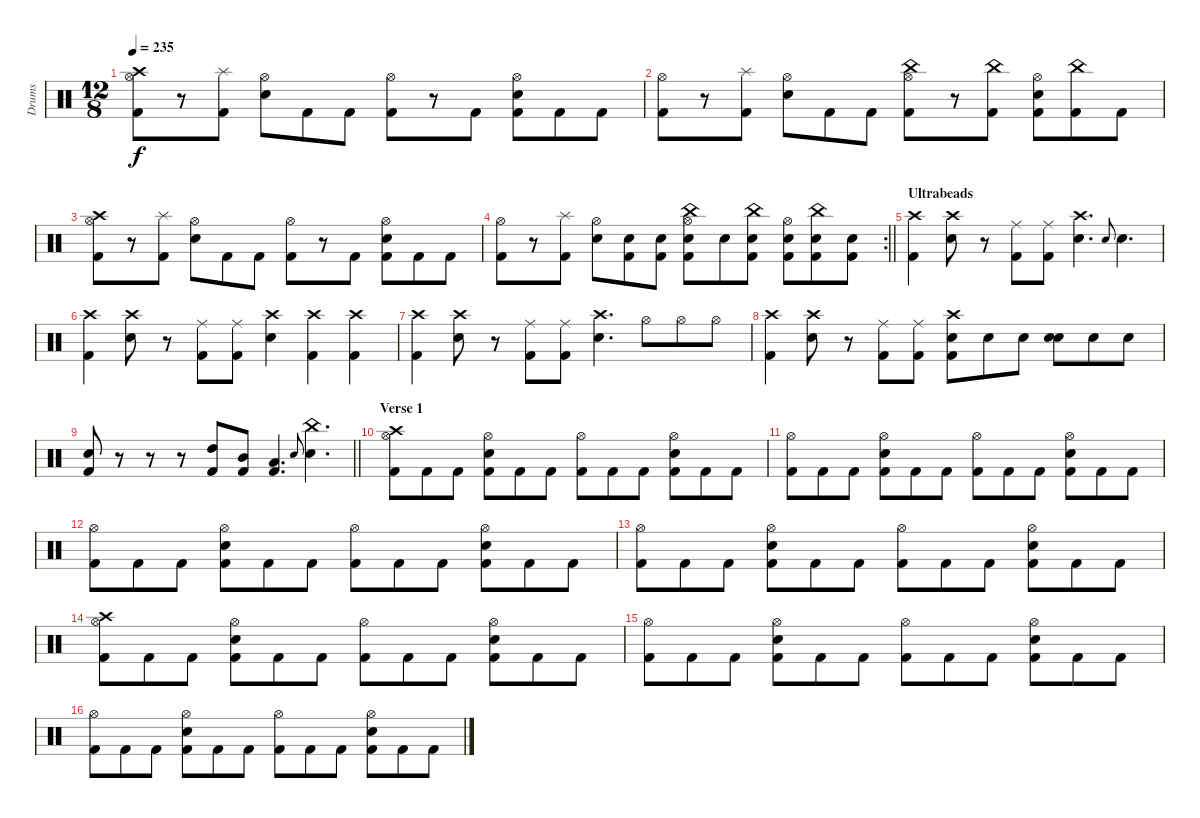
\track ("Drums" "Drums") {instrument percussion}
\staff {score}
\articulation defaults
\ts (12 8)
\tempo 235
\clef neutral
\ks c
("Crash high (hit)" "Hi-Hat (open)" "Kick (hit) 2").8{dy f} r.8 ("Splash (hit)" "Kick (hit) 2").8 ("Hi-Hat (open)" "Snare (hit) 2").8 "Kick (hit) 2".8 "Kick (hit) 2".8 ("Hi-Hat (open)" "Kick (hit) 2").8 r.8 "Kick (hit) 2".8 ("Hi-Hat (open)" "Snare (hit) 2" "Kick (hit) 2").8 "Kick (hit) 2".8 "Kick (hit) 2".8 |
("Hi-Hat (open)" "Kick (hit) 2").8 r.8 ("Splash (hit)" "Kick (hit) 2").8 ("Hi-Hat (open)" "Snare (hit) 2").8 "Kick (hit) 2".8 "Kick (hit) 2".8 ("China (hit)" "Hi-Hat (open)" "Kick (hit) 2").8 r.8 ("China (hit)" "Kick (hit) 2").8 ("Hi-Hat (open)" "Snare (hit) 2" "Kick (hit) 2").8 ("China (hit)" "Kick (hit) 2").8 "Kick (hit) 2".8 |
("Crash high (hit)" "Hi-Hat (open)" "Kick (hit) 2").8 r.8 ("Splash (hit)" "Kick (hit) 2").8 ("Hi-Hat (open)" "Snare (hit) 2").8 "Kick (hit) 2".8 "Kick (hit) 2".8 ("Hi-Hat (open)" "Kick (hit) 2").8 r.8 "Kick (hit) 2".8 ("Hi-Hat (open)" "Snare (hit) 2" "Kick (hit) 2").8 "Kick (hit) 2".8 "Kick (hit) 2".8 |
\rc 2
\barLineRight lightlight
("Hi-Hat (open)" "Kick (hit) 2").8 r.8 ("Splash (hit)" "Kick (hit) 2").8 ("Hi-Hat (open)" "Snare (hit) 2").8 ("Snare (hit) 2" "Kick (hit) 2").8 ("Snare (hit) 2" "Kick (hit) 2").8 ("China (hit)" "Hi-Hat (open)" "Snare (hit) 2" "Kick (hit) 2").8 "Snare (hit) 2".8 ("China (hit)" "Snare (hit) 2" "Kick (hit) 2").8 ("Hi-Hat (open)" "Snare (hit) 2" "Kick (hit) 2").8 ("China (hit)" "Snare (hit) 2" "Kick (hit) 2").8 ("Snare (hit) 2" "Kick (hit) 2").8 |
\section ("" "Ultrabeads")
("Crash high (hit)" "Kick (hit) 2").4 ("Crash high (hit)" "Snare (hit) 2").8 r.8 ("Ride (middle)" "Kick (hit) 2").8 ("Ride (middle)" "Kick (hit) 2").8 ("Crash high (hit)" "Snare (hit) 2").4{d} "Snare (hit) 2".8{gr onbeat} "Snare (hit) 2".4{d} |
("Crash high (hit)" "Kick (hit) 2").4 ("Crash high (hit)" "Snare (hit) 2").8 r.8 ("Ride (middle)" "Kick (hit) 2").8 ("Ride (middle)" "Kick (hit) 2").8 ("Crash high (hit)" "Snare (hit) 2").4 ("Crash high (hit)" "Kick (hit) 2").4 ("Crash high (hit)" "Kick (hit) 2").4 |
("Crash high (hit)" "Kick (hit) 2").4 ("Crash high (hit)" "Snare (hit) 2").8 r.8 ("Ride (middle)" "Kick (hit) 2").8 ("Ride (middle)" "Kick (hit) 2").8 ("Crash high (hit)" "Snare (hit) 2").4{d} "Hi-Hat (open)".8 "Hi-Hat (open)".8 "Hi-Hat (open)".8 |
("Crash high (hit)" "Kick (hit) 2").4 ("Crash high (hit)" "Snare (hit) 2").8 r.8 ("Ride (middle)" "Kick (hit) 2").8 ("Ride (middle)" "Kick (hit) 2").8 ("Crash high (hit)" "Snare (hit) 2" "Kick (hit) 2").8 "Snare (hit) 2".8 "Snare (hit) 2".8 ("Snare (hit) 2" "Snare (hit) 2").8 "Snare (hit) 2".8 "Snare (hit) 2".8 |
\barLineRight lightlight
("Snare (hit) 2" "Kick (hit) 2").8 r.8 r.8 r.8 ("High Tom (hit)" "Kick (hit) 2").8 ("Mid Tom (hit)" "Kick (hit) 2").8 ("Low Tom (hit)" "Kick (hit) 2").4{d} "Snare (hit) 2".8{gr onbeat} ("China (hit)" "Snare (hit) 2").4{d} |
\section ("" "Verse 1")
("Crash high (hit)" "Hi-Hat (open)" "Kick (hit) 2").8 "Kick (hit) 2".8 "Kick (hit) 2".8 ("Hi-Hat (open)" "Snare (hit) 2" "Kick (hit) 2").8 "Kick (hit) 2".8 "Kick (hit) 2".8 ("Hi-Hat (open)" "Kick (hit) 2").8 "Kick (hit) 2".8 "Kick (hit) 2".8 ("Hi-Hat (open)" "Snare (hit) 2" "Kick (hit) 2").8 "Kick (hit) 2".8 "Kick (hit) 2".8 |
("Hi-Hat (open)" "Kick (hit) 2").8 "Kick (hit) 2".8 "Kick (hit) 2".8 ("Hi-Hat (open)" "Snare (hit) 2" "Kick (hit) 2").8 "Kick (hit) 2".8 "Kick (hit) 2".8 ("Hi-Hat (open)" "Kick (hit) 2").8 "Kick (hit) 2".8 "Kick (hit) 2".8 ("Hi-Hat (open)" "Snare (hit) 2" "Kick (hit) 2").8 "Kick (hit) 2".8 "Kick (hit) 2".8 |
("Hi-Hat (open)" "Kick (hit) 2").8 "Kick (hit) 2".8 "Kick (hit) 2".8 ("Hi-Hat (open)" "Snare (hit) 2" "Kick (hit) 2").8 "Kick (hit) 2".8 "Kick (hit) 2".8 ("Hi-Hat (open)" "Kick (hit) 2").8 "Kick (hit) 2".8 "Kick (hit) 2".8 ("Hi-Hat (open)" "Snare (hit) 2" "Kick (hit) 2").8 "Kick (hit) 2".8 "Kick (hit) 2".8 |
("Hi-Hat (open)" "Kick (hit) 2").8 "Kick (hit) 2".8 "Kick (hit) 2".8 ("Hi-Hat (open)" "Snare (hit) 2" "Kick (hit) 2").8 "Kick (hit) 2".8 "Kick (hit) 2".8 ("Hi-Hat (open)" "Kick (hit) 2").8 "Kick (hit) 2".8 "Kick (hit) 2".8 ("Hi-Hat (open)" "Snare (hit) 2" "Kick (hit) 2").8 "Kick (hit) 2".8 "Kick (hit) 2".8 |
("Crash high (hit)" "Hi-Hat (open)" "Kick (hit) 2").8 "Kick (hit) 2".8 "Kick (hit) 2".8 ("Hi-Hat (open)" "Snare (hit) 2" "Kick (hit) 2").8 "Kick (hit) 2".8 "Kick (hit) 2".8 ("Hi-Hat (open)" "Kick (hit) 2").8 "Kick (hit) 2".8 "Kick (hit) 2".8 ("Hi-Hat (open)" "Snare (hit) 2" "Kick (hit) 2").8 "Kick (hit) 2".8 "Kick (hit) 2".8 |
("Hi-Hat (open)" "Kick (hit) 2").8 "Kick (hit) 2".8 "Kick (hit) 2".8 ("Hi-Hat (open)" "Snare (hit) 2" "Kick (hit) 2").8 "Kick (hit) 2".8 "Kick (hit) 2".8 ("Hi-Hat (open)" "Kick (hit) 2").8 "Kick (hit) 2".8 "Kick (hit) 2".8 ("Hi-Hat (open)" "Snare (hit) 2" "Kick (hit) 2").8 "Kick (hit) 2".8 "Kick (hit) 2".8 |
("Hi-Hat (open)" "Kick (hit) 2").8 "Kick (hit) 2".8 "Kick (hit) 2".8 ("Hi-Hat (open)" "Snare (hit) 2" "Kick (hit) 2").8 "Kick (hit) 2".8 "Kick (hit) 2".8 ("Hi-Hat (open)" "Kick (hit) 2").8 "Kick (hit) 2".8 "Kick (hit) 2".8 ("Hi-Hat (open)" "Snare (hit) 2" "Kick (hit) 2").8 "Kick (hit) 2".8 "Kick (hit) 2".8
